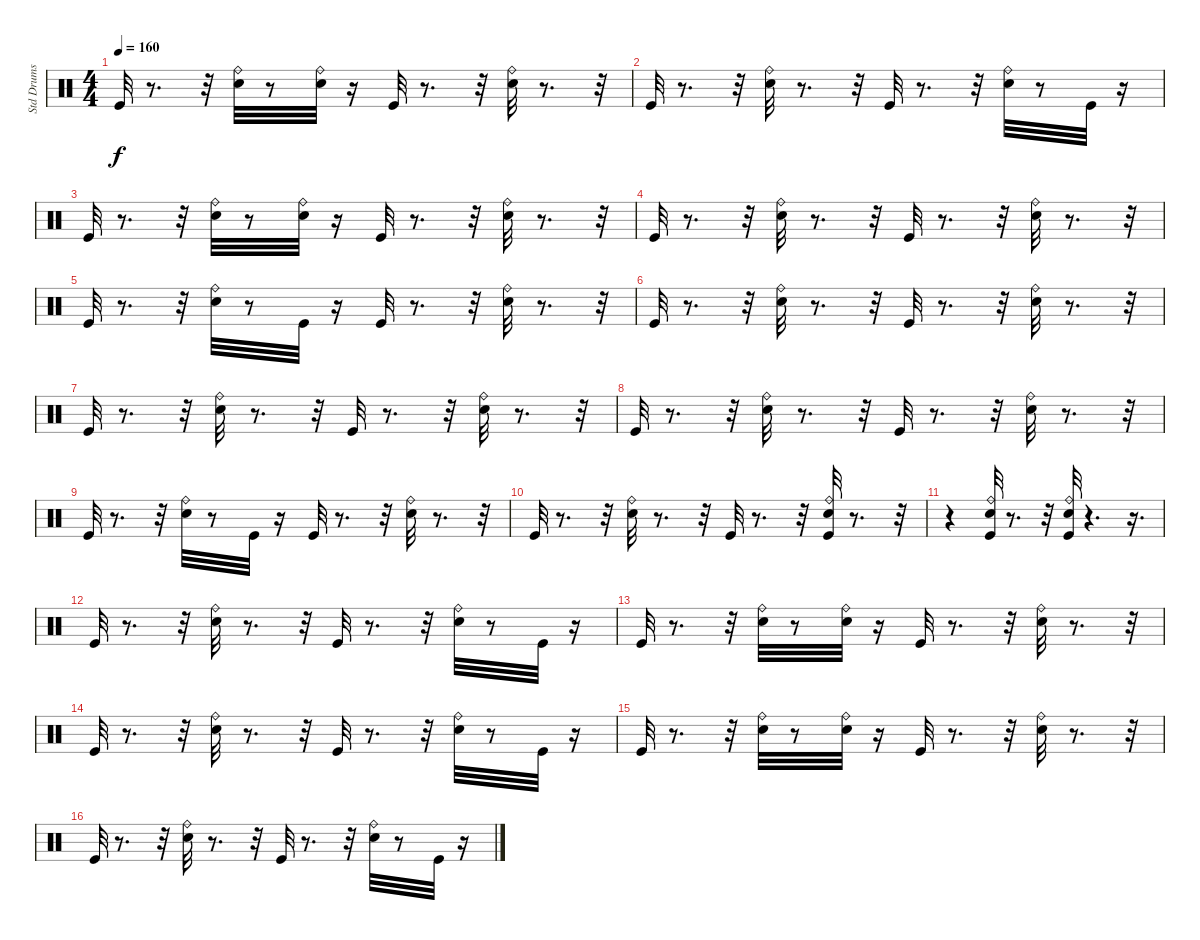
\track ("Std Drums" "Std Drums") {instrument percussion}
\staff {score}
\articulation defaults
\ts (4 4)
\tempo 160
\clef neutral
\ks c "Kick (hit)".32{dy f}
r.8{d} r.32 ("Ride (bell)" "Snare (hit) 2").32 r.8 ("Ride (bell)" "Snare (hit) 2").32 r.16 "Kick (hit)".32 r.8{d} r.32 ("Ride (bell)" "Snare (hit) 2").32 r.8{d} r.32 |
"Kick (hit)".32 r.8{d} r.32 ("Snare (hit) 2" "Ride (bell)").32 r.8{d} r.32 "Kick (hit)".32 r.8{d} r.32 ("Snare (hit) 2" "Ride (bell)").32 r.8 "Kick (hit)".32 r.16 |
"Kick (hit)".32 r.8{d} r.32 ("Snare (hit) 2" "Ride (bell)").32 r.8 ("Ride (bell)" "Snare (hit) 2").32 r.16 "Kick (hit)".32 r.8{d} r.32 ("Snare (hit) 2" "Ride (bell)").32 r.8{d} r.32 |
"Kick (hit)".32 r.8{d} r.32 ("Ride (bell)" "Snare (hit) 2").32 r.8{d} r.32 "Kick (hit)".32 r.8{d} r.32 ("Ride (bell)" "Snare (hit) 2").32 r.8{d} r.32 |
"Kick (hit)".32 r.8{d} r.32 ("Snare (hit) 2" "Ride (bell)").32 r.8 "Kick (hit)".32 r.16 "Kick (hit)".32 r.8{d} r.32 ("Snare (hit) 2" "Ride (bell)").32 r.8{d} r.32 |
"Kick (hit)".32 r.8{d} r.32 ("Snare (hit) 2" "Ride (bell)").32 r.8{d} r.32 "Kick (hit)".32 r.8{d} r.32 ("Ride (bell)" "Snare (hit) 2").32 r.8{d} r.32 |
"Kick (hit)".32 r.8{d} r.32 ("Snare (hit) 2" "Ride (bell)").32 r.8{d} r.32 "Kick (hit)".32 r.8{d} r.32 ("Ride (bell)" "Snare (hit) 2").32 r.8{d} r.32 |
"Kick (hit)".32 r.8{d} r.32 ("Ride (bell)" "Snare (hit) 2").32 r.8{d} r.32 "Kick (hit)".32 r.8{d} r.32 ("Snare (hit) 2" "Ride (bell)").32 r.8{d} r.32 |
"Kick (hit)".32 r.8{d} r.32 ("Ride (bell)" "Snare (hit) 2").32 r.8 "Kick (hit)".32 r.16 "Kick (hit)".32 r.8{d} r.32 ("Snare (hit) 2" "Ride (bell)").32 r.8{d} r.32 |
"Kick (hit)".32 r.8{d} r.32 ("Ride (bell)" "Snare (hit) 2").32 r.8{d} r.32 "Kick (hit)".32 r.8{d} r.32 ("Ride (bell)" "Snare (hit) 2" "Kick (hit)").32 r.8{d} r.32 |
r.4 ("Kick (hit)" "Snare (hit) 2" "Ride (bell)").32 r.8{d} r.32 ("Ride (bell)" "Snare (hit) 2" "Kick (hit)").32 r.4{d} r.16{d} |
"Kick (hit)".32 r.8{d} r.32 ("Ride (bell)" "Snare (hit) 2").32 r.8{d} r.32 "Kick (hit)".32 r.8{d} r.32 ("Snare (hit) 2" "Ride (bell)").32 r.8 "Kick (hit)".32 r.16 |
"Kick (hit)".32 r.8{d} r.32 ("Snare (hit) 2" "Ride (bell)").32 r.8 ("Ride (bell)" "Snare (hit) 2").32 r.16 "Kick (hit)".32 r.8{d} r.32 ("Snare (hit) 2" "Ride (bell)").32 r.8{d} r.32 |
"Kick (hit)".32 r.8{d} r.32 ("Ride (bell)" "Snare (hit) 2").32 r.8{d} r.32 "Kick (hit)".32 r.8{d} r.32 ("Ride (bell)" "Snare (hit) 2").32 r.8 "Kick (hit)".32 r.16 |
"Kick (hit)".32 r.8{d} r.32 ("Snare (hit) 2" "Ride (bell)").32 r.8 ("Snare (hit) 2" "Ride (bell)").32 r.16 "Kick (hit)".32 r.8{d} r.32 ("Ride (bell)" "Snare (hit) 2").32 r.8{d} r.32 |
"Kick (hit)".32 r.8{d} r.32 ("Snare (hit) 2" "Ride (bell)").32 r.8{d} r.32 "Kick (hit)".32 r.8{d} r.32 ("Snare (hit) 2" "Ride (bell)").32 r.8 "Kick (hit)".32 r.16
